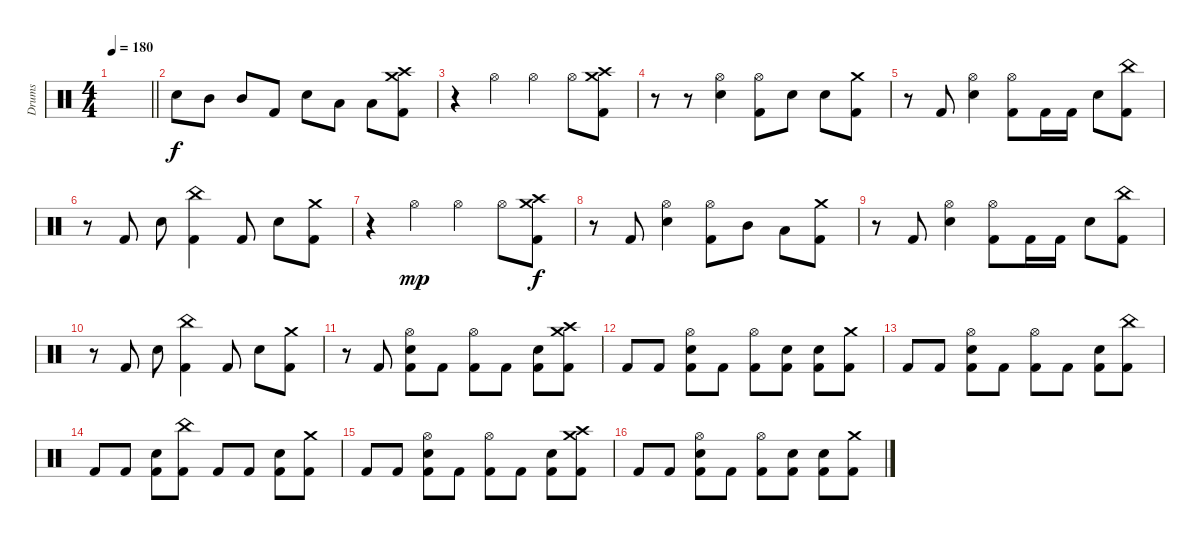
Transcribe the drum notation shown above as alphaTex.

\track ("Drums" "Drums") {instrument percussion}
\staff {score}
\articulation defaults
\ts (4 4)
\tempo 180
\clef neutral
\barLineRight lightlight
\ks c
|
"Electric Snare (hit)".8 "Mid Tom (hit)".8 "Mid Tom (hit)".8 "Kick (hit) 2".8 "Electric Snare (hit)".8 "Low Tom (hit)".8 "Low Tom (hit)".8 ("Kick (hit) 2" "Crash high (hit)" "Crash medium (hit)").8 |
r.4 "Hi-Hat (open)".4 "Hi-Hat (open)".4 "Hi-Hat (open)".8 ("Kick (hit) 2" "Crash high (hit)" "Crash medium (hit)").8 |
r.8 r.8 ("Hi-Hat (open)" "Electric Snare (hit)").4 ("Kick (hit) 2" "Hi-Hat (open)").8 "Electric Snare (hit)".8 "Electric Snare (hit)".8 ("Kick (hit) 2" "Crash medium (hit)").8 |
r.8 "Kick (hit) 2".8 ("Hi-Hat (open)" "Electric Snare (hit)").4 ("Hi-Hat (open)" "Kick (hit) 2").8 "Kick (hit) 2".16 "Kick (hit) 2".16 "Electric Snare (hit)".8 ("China (hit)" "Kick (hit) 2").8 |
r.8 "Kick (hit) 2".8 "Electric Snare (hit)".8 ("China (hit)" "Kick (hit) 2").4 "Kick (hit) 2".8 "Electric Snare (hit)".8 ("Crash medium (hit)" "Kick (hit) 2").8 |
r.4 "Hi-Hat (open)".4{dy mp} "Hi-Hat (open)".4 "Hi-Hat (open)".8 ("Crash medium (hit)" "Crash high (hit)" "Kick (hit) 2").8{dy f} |
r.8 "Kick (hit) 2".8 ("Hi-Hat (open)" "Electric Snare (hit)").4 ("Hi-Hat (open)" "Kick (hit) 2").8 "Mid Tom (hit)".8 "Low Tom (hit)".8 ("Crash medium (hit)" "Kick (hit) 2").8 |
r.8 "Kick (hit) 2".8 ("Hi-Hat (open)" "Electric Snare (hit)").4 ("Hi-Hat (open)" "Kick (hit) 2").8 "Kick (hit) 2".16 "Kick (hit) 2".16 "Electric Snare (hit)".8 ("China (hit)" "Kick (hit) 2").8 |
r.8 "Kick (hit) 2".8 "Electric Snare (hit)".8 ("China (hit)" "Kick (hit) 2").4 "Kick (hit) 2".8 "Electric Snare (hit)".8 ("Crash medium (hit)" "Kick (hit) 2").8 |
r.8 "Kick (hit) 2".8 ("Hi-Hat (open)" "Electric Snare (hit)" "Kick (hit) 2").8 "Kick (hit) 2".8 ("Hi-Hat (open)" "Kick (hit) 2").8 "Kick (hit) 2".8 ("Electric Snare (hit)" "Kick (hit) 2").8 ("Crash medium (hit)" "Crash high (hit)" "Kick (hit) 2").8 |
"Kick (hit) 2".8 "Kick (hit) 2".8 ("Hi-Hat (open)" "Electric Snare (hit)" "Kick (hit) 2").8 "Kick (hit) 2".8 ("Hi-Hat (open)" "Kick (hit) 2").8 ("Electric Snare (hit)" "Kick (hit) 2").8 ("Electric Snare (hit)" "Kick (hit) 2").8 ("Crash medium (hit)" "Kick (hit) 2").8 |
"Kick (hit) 2".8 "Kick (hit) 2".8 ("Hi-Hat (open)" "Electric Snare (hit)" "Kick (hit) 2").8 "Kick (hit) 2".8 ("Hi-Hat (open)" "Kick (hit) 2").8 "Kick (hit) 2".8 ("Electric Snare (hit)" "Kick (hit) 2").8 ("China (hit)" "Kick (hit) 2").8 |
"Kick (hit) 2".8 "Kick (hit) 2".8 ("Electric Snare (hit)" "Kick (hit) 2").8 ("China (hit)" "Kick (hit) 2").8 "Kick (hit) 2".8 "Kick (hit) 2".8 ("Electric Snare (hit)" "Kick (hit) 2").8 ("Crash medium (hit)" "Kick (hit) 2").8 |
"Kick (hit) 2".8 "Kick (hit) 2".8 ("Hi-Hat (open)" "Electric Snare (hit)" "Kick (hit) 2").8 "Kick (hit) 2".8 ("Hi-Hat (open)" "Kick (hit) 2").8 "Kick (hit) 2".8 ("Electric Snare (hit)" "Kick (hit) 2").8 ("Crash medium (hit)" "Crash high (hit)" "Kick (hit) 2").8 |
"Kick (hit) 2".8 "Kick (hit) 2".8 ("Hi-Hat (open)" "Electric Snare (hit)" "Kick (hit) 2").8 "Kick (hit) 2".8 ("Hi-Hat (open)" "Kick (hit) 2").8 ("Electric Snare (hit)" "Kick (hit) 2").8 ("Electric Snare (hit)" "Kick (hit) 2").8 ("Crash medium (hit)" "Kick (hit) 2").8
